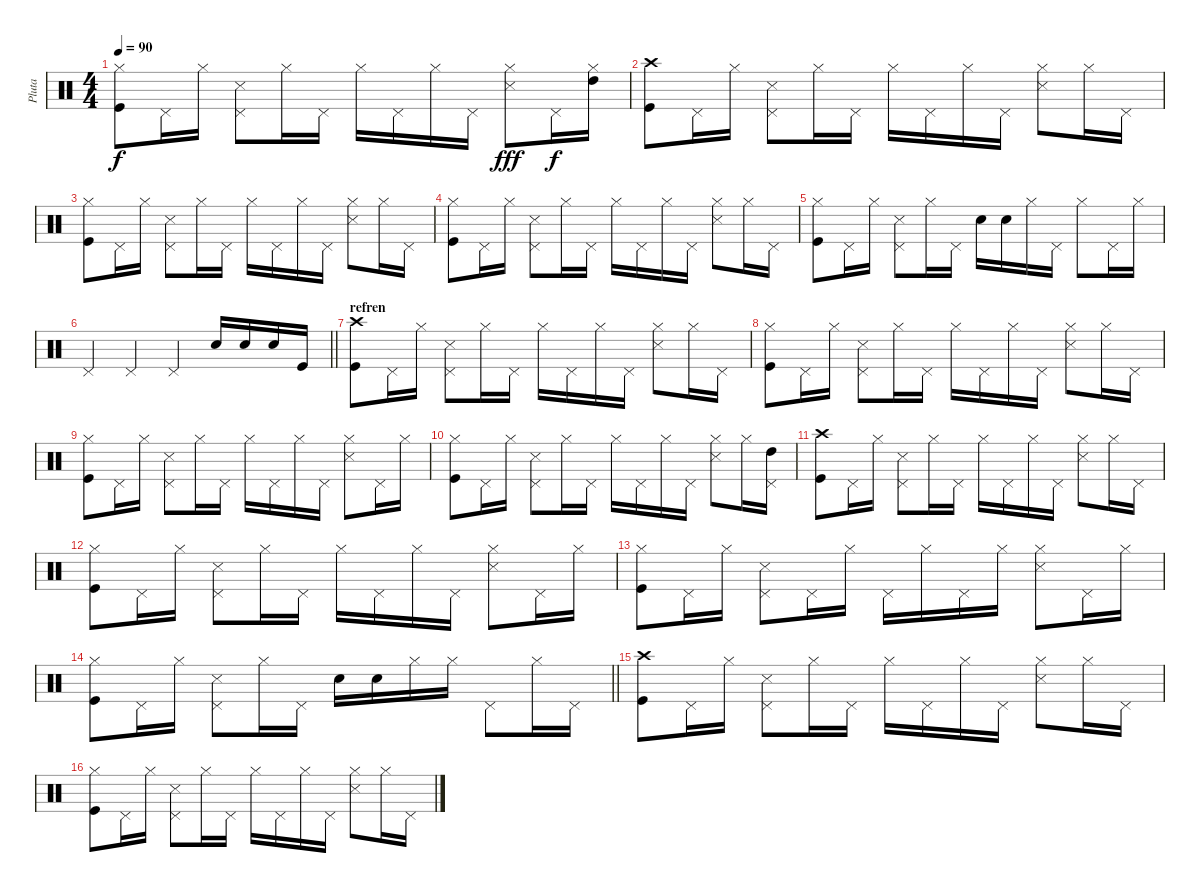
\track ("Pluta" "Pluta") {instrument percussion}
\staff {score}
\articulation defaults
\ts (4 4)
\tempo 90
\clef neutral
\ks c
("Hi-Hat (closed)" "Kick (hit)").8{dy f} "Pedal Hi-Hat (hit)".16 "Hi-Hat (closed)".16 ("Pedal Hi-Hat (hit)" "Snare (side stick) 3").8 "Hi-Hat (closed)".16 "Pedal Hi-Hat (hit)".16 "Hi-Hat (closed)".16 "Pedal Hi-Hat (hit)".16 "Hi-Hat (closed)".16 "Pedal Hi-Hat (hit)".16 ("Hi-Hat (closed)" "Snare (side stick) 3").8{dy fff} "Pedal Hi-Hat (hit)".16{dy f} ("Hi-Hat (closed)" "High Tom (hit)").16 |
("Crash high (hit)" "Kick (hit)").8 "Pedal Hi-Hat (hit)".16 "Hi-Hat (closed)".16 ("Pedal Hi-Hat (hit)" "Snare (side stick) 3").8 "Hi-Hat (closed)".16 "Pedal Hi-Hat (hit)".16 "Hi-Hat (closed)".16 "Pedal Hi-Hat (hit)".16 "Hi-Hat (closed)".16 "Pedal Hi-Hat (hit)".16 ("Hi-Hat (closed)" "Snare (side stick) 3").8 "Hi-Hat (closed)".16 "Pedal Hi-Hat (hit)".16 |
("Hi-Hat (closed)" "Kick (hit)").8 "Pedal Hi-Hat (hit)".16 "Hi-Hat (closed)".16 ("Pedal Hi-Hat (hit)" "Snare (side stick) 3").8 "Hi-Hat (closed)".16 "Pedal Hi-Hat (hit)".16 "Hi-Hat (closed)".16 "Pedal Hi-Hat (hit)".16 "Hi-Hat (closed)".16 "Pedal Hi-Hat (hit)".16 ("Hi-Hat (closed)" "Snare (side stick) 3").8 "Hi-Hat (closed)".16 "Pedal Hi-Hat (hit)".16 |
("Hi-Hat (closed)" "Kick (hit)").8 "Pedal Hi-Hat (hit)".16 "Hi-Hat (closed)".16 ("Pedal Hi-Hat (hit)" "Snare (side stick) 3").8 "Hi-Hat (closed)".16 "Pedal Hi-Hat (hit)".16 "Hi-Hat (closed)".16 "Pedal Hi-Hat (hit)".16 "Hi-Hat (closed)".16 "Pedal Hi-Hat (hit)".16 ("Hi-Hat (closed)" "Snare (side stick) 3").8 "Hi-Hat (closed)".16 "Pedal Hi-Hat (hit)".16 |
("Hi-Hat (closed)" "Kick (hit)").8 "Pedal Hi-Hat (hit)".16 "Hi-Hat (closed)".16 ("Pedal Hi-Hat (hit)" "Snare (side stick) 3").8 "Hi-Hat (closed)".16 "Pedal Hi-Hat (hit)".16 "Snare (hit) 2".16 "Snare (hit) 2".16 "Hi-Hat (closed)".16 "Pedal Hi-Hat (hit)".16 "Hi-Hat (closed)".8 "Pedal Hi-Hat (hit)".16 "Hi-Hat (closed)".16 |
\barLineRight lightlight "Pedal Hi-Hat (hit)".4 "Pedal Hi-Hat (hit)".4 "Pedal Hi-Hat (hit)".4 "Snare (hit) 2".16 "Snare (hit) 2".16 "Snare (hit)".16 "Kick (hit)".16
|
\section ("" "refren")
("Crash high (hit)" "Kick (hit)").8 "Pedal Hi-Hat (hit)".16 "Hi-Hat (closed)".16 ("Pedal Hi-Hat (hit)" "Snare (side stick) 3").8 "Hi-Hat (closed)".16 "Pedal Hi-Hat (hit)".16 "Hi-Hat (closed)".16 "Pedal Hi-Hat (hit)".16 "Hi-Hat (closed)".16 "Pedal Hi-Hat (hit)".16 ("Hi-Hat (closed)" "Snare (side stick) 3").8 "Hi-Hat (closed)".16 "Pedal Hi-Hat (hit)".16 |
("Hi-Hat (closed)" "Kick (hit)").8 "Pedal Hi-Hat (hit)".16 "Hi-Hat (closed)".16 ("Pedal Hi-Hat (hit)" "Snare (side stick) 3").8 "Hi-Hat (closed)".16 "Pedal Hi-Hat (hit)".16 "Hi-Hat (closed)".16 "Pedal Hi-Hat (hit)".16 "Hi-Hat (closed)".16 "Pedal Hi-Hat (hit)".16 ("Hi-Hat (closed)" "Snare (side stick) 3").8 "Hi-Hat (closed)".16 "Pedal Hi-Hat (hit)".16 |
("Hi-Hat (closed)" "Kick (hit)").8 "Pedal Hi-Hat (hit)".16 "Hi-Hat (closed)".16 ("Pedal Hi-Hat (hit)" "Snare (side stick) 3").8 "Hi-Hat (closed)".16 "Pedal Hi-Hat (hit)".16 "Hi-Hat (closed)".16 "Pedal Hi-Hat (hit)".16 "Hi-Hat (closed)".16 "Pedal Hi-Hat (hit)".16 ("Hi-Hat (closed)" "Snare (side stick) 3").8 "Pedal Hi-Hat (hit)".16 "Hi-Hat (closed)".16 |
("Hi-Hat (closed)" "Kick (hit)").8 "Pedal Hi-Hat (hit)".16 "Hi-Hat (closed)".16 ("Pedal Hi-Hat (hit)" "Snare (side stick) 3").8 "Hi-Hat (closed)".16 "Pedal Hi-Hat (hit)".16 "Hi-Hat (closed)".16 "Pedal Hi-Hat (hit)".16 "Hi-Hat (closed)".16 "Pedal Hi-Hat (hit)".16 ("Hi-Hat (closed)" "Snare (side stick) 3").8 "Hi-Hat (closed)".16 ("Pedal Hi-Hat (hit)" "High Tom (hit)").16 |
("Crash high (hit)" "Kick (hit)").8 "Pedal Hi-Hat (hit)".16 "Hi-Hat (closed)".16 ("Pedal Hi-Hat (hit)" "Snare (side stick) 3").8 "Hi-Hat (closed)".16 "Pedal Hi-Hat (hit)".16 "Hi-Hat (closed)".16 "Pedal Hi-Hat (hit)".16 "Hi-Hat (closed)".16 "Pedal Hi-Hat (hit)".16 ("Hi-Hat (closed)" "Snare (side stick) 3").8 "Hi-Hat (closed)".16 "Pedal Hi-Hat (hit)".16 |
("Hi-Hat (closed)" "Kick (hit)").8 "Pedal Hi-Hat (hit)".16 "Hi-Hat (closed)".16 ("Pedal Hi-Hat (hit)" "Snare (side stick) 3").8 "Hi-Hat (closed)".16 "Pedal Hi-Hat (hit)".16 "Hi-Hat (closed)".16 "Pedal Hi-Hat (hit)".16 "Hi-Hat (closed)".16 "Pedal Hi-Hat (hit)".16 ("Hi-Hat (closed)" "Snare (side stick) 3").8 "Pedal Hi-Hat (hit)".16 "Hi-Hat (closed)".16 |
("Hi-Hat (closed)" "Kick (hit)").8 "Pedal Hi-Hat (hit)".16 "Hi-Hat (closed)".16 ("Pedal Hi-Hat (hit)" "Snare (side stick) 3").8 "Pedal Hi-Hat (hit)".16 "Hi-Hat (closed)".16 "Pedal Hi-Hat (hit)".16 "Hi-Hat (closed)".16 "Pedal Hi-Hat (hit)".16 "Hi-Hat (closed)".16 ("Hi-Hat (closed)" "Snare (side stick) 3").8 "Pedal Hi-Hat (hit)".16 "Hi-Hat (closed)".16 |
\barLineRight lightlight
("Hi-Hat (closed)" "Kick (hit)").8 "Pedal Hi-Hat (hit)".16 "Hi-Hat (closed)".16 ("Pedal Hi-Hat (hit)" "Snare (side stick) 3").8 "Hi-Hat (closed)".16 "Pedal Hi-Hat (hit)".16 "Snare (hit) 2".16 "Snare (hit) 2".16 "Hi-Hat (closed)".16 "Hi-Hat (closed)".16 "Pedal Hi-Hat (hit)".8 "Hi-Hat (closed)".16 "Pedal Hi-Hat (hit)".16 |
("Crash high (hit)" "Kick (hit)").8 "Pedal Hi-Hat (hit)".16 "Hi-Hat (closed)".16 ("Pedal Hi-Hat (hit)" "Snare (side stick) 3").8 "Hi-Hat (closed)".16 "Pedal Hi-Hat (hit)".16 "Hi-Hat (closed)".16 "Pedal Hi-Hat (hit)".16 "Hi-Hat (closed)".16 "Pedal Hi-Hat (hit)".16 ("Hi-Hat (closed)" "Snare (side stick) 3").8 "Hi-Hat (closed)".16 "Pedal Hi-Hat (hit)".16 |
("Hi-Hat (closed)" "Kick (hit)").8 "Pedal Hi-Hat (hit)".16 "Hi-Hat (closed)".16 ("Pedal Hi-Hat (hit)" "Snare (side stick) 3").8 "Hi-Hat (closed)".16 "Pedal Hi-Hat (hit)".16 "Hi-Hat (closed)".16 "Pedal Hi-Hat (hit)".16 "Hi-Hat (closed)".16 "Pedal Hi-Hat (hit)".16 ("Hi-Hat (closed)" "Snare (side stick) 3").8 "Hi-Hat (closed)".16 "Pedal Hi-Hat (hit)".16
